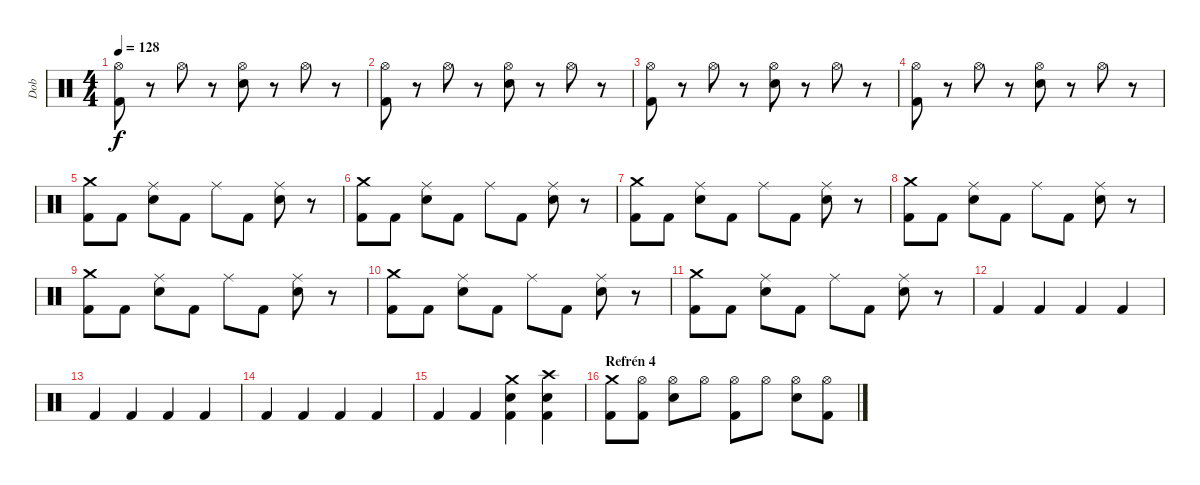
\track ("Dob" "Dob") {instrument percussion}
\staff {score}
\articulation defaults
\ts (4 4)
\tempo 128
\clef neutral
\ks c
("Hi-Hat (open)" "Kick (hit) 2").8{dy f} r.8 "Hi-Hat (open)".8 r.8 ("Hi-Hat (open)" "Snare (hit) 2").8 r.8 "Hi-Hat (open)".8 r.8 |
("Hi-Hat (open)" "Kick (hit) 2").8 r.8 "Hi-Hat (open)".8 r.8 ("Hi-Hat (open)" "Snare (hit) 2").8 r.8 "Hi-Hat (open)".8 r.8 |
("Hi-Hat (open)" "Kick (hit) 2").8 r.8 "Hi-Hat (open)".8 r.8 ("Hi-Hat (open)" "Snare (hit) 2").8 r.8 "Hi-Hat (open)".8 r.8 |
("Hi-Hat (open)" "Kick (hit) 2").8 r.8 "Hi-Hat (open)".8 r.8 ("Hi-Hat (open)" "Snare (hit) 2").8 r.8 "Hi-Hat (open)".8 r.8 |
("Crash medium (hit)" "Kick (hit) 2").8 "Kick (hit) 2".8 ("Ride (middle)" "Snare (hit) 2").8 "Kick (hit) 2".8 "Ride (middle)".8 "Kick (hit) 2".8 ("Ride (middle)" "Snare (hit) 2").8 r.8 |
("Crash medium (hit)" "Kick (hit) 2").8 "Kick (hit) 2".8 ("Ride (middle)" "Snare (hit) 2").8 "Kick (hit) 2".8 "Ride (middle)".8 "Kick (hit) 2".8 ("Ride (middle)" "Snare (hit) 2").8 r.8 |
("Crash medium (hit)" "Kick (hit) 2").8 "Kick (hit) 2".8 ("Ride (middle)" "Snare (hit) 2").8 "Kick (hit) 2".8 "Ride (middle)".8 "Kick (hit) 2".8 ("Ride (middle)" "Snare (hit) 2").8 r.8 |
("Crash medium (hit)" "Kick (hit) 2").8 "Kick (hit) 2".8 ("Ride (middle)" "Snare (hit) 2").8 "Kick (hit) 2".8 "Ride (middle)".8 "Kick (hit) 2".8 ("Ride (middle)" "Snare (hit) 2").8 r.8 |
("Crash medium (hit)" "Kick (hit) 2").8 "Kick (hit) 2".8 ("Ride (middle)" "Snare (hit) 2").8 "Kick (hit) 2".8 "Ride (middle)".8 "Kick (hit) 2".8 ("Ride (middle)" "Snare (hit) 2").8 r.8 |
("Crash medium (hit)" "Kick (hit) 2").8 "Kick (hit) 2".8 ("Ride (middle)" "Snare (hit) 2").8 "Kick (hit) 2".8 "Ride (middle)".8 "Kick (hit) 2".8 ("Ride (middle)" "Snare (hit) 2").8 r.8 |
("Crash medium (hit)" "Kick (hit) 2").8 "Kick (hit) 2".8 ("Ride (middle)" "Snare (hit) 2").8 "Kick (hit) 2".8 "Ride (middle)".8 "Kick (hit) 2".8 ("Ride (middle)" "Snare (hit) 2").8 r.8 |
"Kick (hit) 2".4 "Kick (hit) 2".4 "Kick (hit) 2".4 "Kick (hit) 2".4 |
"Kick (hit) 2".4 "Kick (hit) 2".4 "Kick (hit) 2".4 "Kick (hit) 2".4 |
"Kick (hit) 2".4 "Kick (hit) 2".4 "Kick (hit) 2".4 "Kick (hit) 2".4 |
"Kick (hit) 2".4 "Kick (hit) 2".4 ("Crash medium (hit)" "Snare (hit) 2" "Kick (hit) 2").4 ("Crash high (hit)" "Snare (hit) 2" "Kick (hit) 2").4 |
\section ("" "Refrén 4")
("Crash medium (hit)" "Kick (hit) 2").8 ("Hi-Hat (open)" "Kick (hit) 2").8 ("Hi-Hat (open)" "Snare (hit) 2").8 "Hi-Hat (open)".8 ("Hi-Hat (open)" "Kick (hit) 2").8 "Hi-Hat (open)".8 ("Hi-Hat (open)" "Snare (hit) 2").8 ("Hi-Hat (open)" "Kick (hit) 2").8
